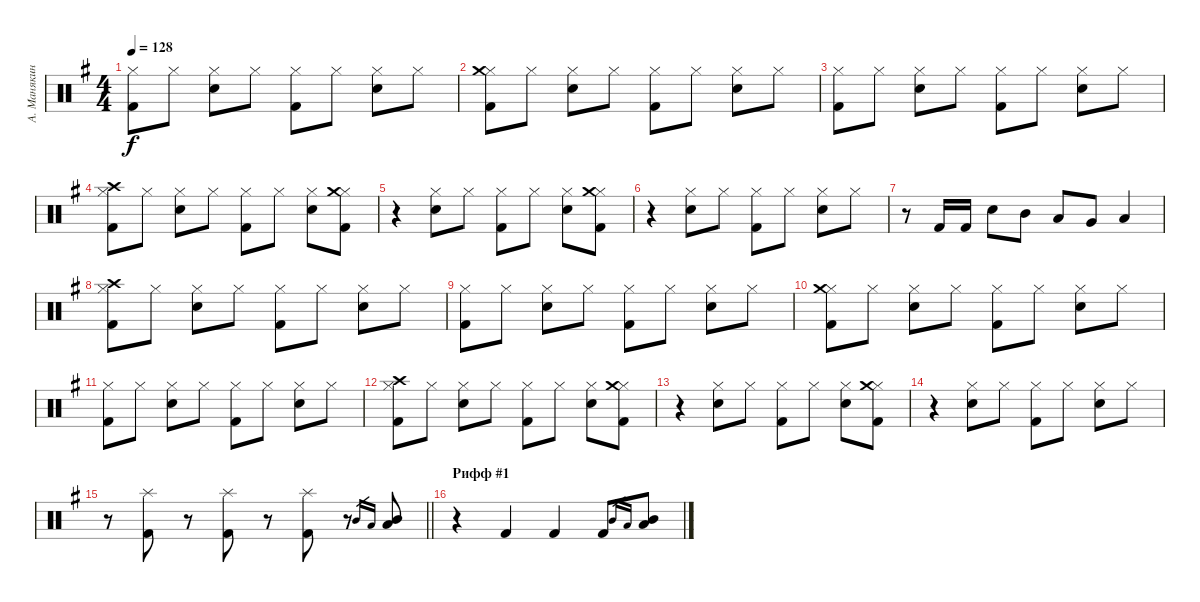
\track ("А. Манякин" "А. Манякин") {instrument percussion}
\staff {score}
\articulation defaults
\ts (4 4)
\tempo 128
\clef neutral
\ks g
("Kick (hit) 2" "Hi-Hat (closed)").8{dy f} "Hi-Hat (closed)".8 ("Electric Snare (hit)" "Hi-Hat (closed)").8 "Hi-Hat (closed)".8 ("Kick (hit) 2" "Hi-Hat (closed)").8 "Hi-Hat (closed)".8 ("Electric Snare (hit)" "Hi-Hat (closed)").8 "Hi-Hat (closed)".8 |
("Kick (hit) 2" "Hi-Hat (closed)" "Crash medium (hit)").8 "Hi-Hat (closed)".8 ("Electric Snare (hit)" "Hi-Hat (closed)").8 "Hi-Hat (closed)".8 ("Kick (hit) 2" "Hi-Hat (closed)").8 "Hi-Hat (closed)".8 ("Electric Snare (hit)" "Hi-Hat (closed)").8 "Hi-Hat (closed)".8 |
("Kick (hit) 2" "Hi-Hat (closed)").8 "Hi-Hat (closed)".8 ("Electric Snare (hit)" "Hi-Hat (closed)").8 "Hi-Hat (closed)".8 ("Kick (hit) 2" "Hi-Hat (closed)").8 "Hi-Hat (closed)".8 ("Electric Snare (hit)" "Hi-Hat (closed)").8 "Hi-Hat (closed)".8 |
("Kick (hit) 2" "Hi-Hat (closed)" "Crash high (hit)").8 "Hi-Hat (closed)".8 ("Electric Snare (hit)" "Hi-Hat (closed)").8 "Hi-Hat (closed)".8 ("Kick (hit) 2" "Hi-Hat (closed)").8 "Hi-Hat (closed)".8 ("Electric Snare (hit)" "Hi-Hat (closed)").8 ("Kick (hit) 2" "Hi-Hat (closed)" "Crash medium (hit)").8 |
r.4 ("Electric Snare (hit)" "Hi-Hat (closed)").8 "Hi-Hat (closed)".8 ("Kick (hit) 2" "Hi-Hat (closed)").8 "Hi-Hat (closed)".8 ("Electric Snare (hit)" "Hi-Hat (closed)").8 ("Kick (hit) 2" "Hi-Hat (closed)" "Crash medium (hit)").8 |
r.4 ("Electric Snare (hit)" "Hi-Hat (closed)").8 "Hi-Hat (closed)".8 ("Kick (hit) 2" "Hi-Hat (closed)").8 "Hi-Hat (closed)".8 ("Electric Snare (hit)" "Hi-Hat (closed)").8 "Hi-Hat (closed)".8 |
r.8 "Kick (hit) 2".16 "Kick (hit) 2".16 "Electric Snare (hit)".8 "Mid Tom (hit)".8 "Low Tom (hit)".8 "Very Low Tom (hit)".8 "Low Floor Tom (hit)".4 |
("Kick (hit) 2" "Hi-Hat (closed)" "Crash high (hit)").8 "Hi-Hat (closed)".8 ("Electric Snare (hit)" "Hi-Hat (closed)").8 "Hi-Hat (closed)".8 ("Kick (hit) 2" "Hi-Hat (closed)").8 "Hi-Hat (closed)".8 ("Electric Snare (hit)" "Hi-Hat (closed)").8 "Hi-Hat (closed)".8 |
("Kick (hit) 2" "Hi-Hat (closed)").8 "Hi-Hat (closed)".8 ("Electric Snare (hit)" "Hi-Hat (closed)").8 "Hi-Hat (closed)".8 ("Kick (hit) 2" "Hi-Hat (closed)").8 "Hi-Hat (closed)".8 ("Electric Snare (hit)" "Hi-Hat (closed)").8 "Hi-Hat (closed)".8 |
("Kick (hit) 2" "Hi-Hat (closed)" "Crash medium (hit)").8 "Hi-Hat (closed)".8 ("Electric Snare (hit)" "Hi-Hat (closed)").8 "Hi-Hat (closed)".8 ("Kick (hit) 2" "Hi-Hat (closed)").8 "Hi-Hat (closed)".8 ("Electric Snare (hit)" "Hi-Hat (closed)").8 "Hi-Hat (closed)".8 |
("Kick (hit) 2" "Hi-Hat (closed)").8 "Hi-Hat (closed)".8 ("Electric Snare (hit)" "Hi-Hat (closed)").8 "Hi-Hat (closed)".8 ("Kick (hit) 2" "Hi-Hat (closed)").8 "Hi-Hat (closed)".8 ("Electric Snare (hit)" "Hi-Hat (closed)").8 "Hi-Hat (closed)".8 |
("Kick (hit) 2" "Hi-Hat (closed)" "Crash high (hit)").8 "Hi-Hat (closed)".8 ("Electric Snare (hit)" "Hi-Hat (closed)").8 "Hi-Hat (closed)".8 ("Kick (hit) 2" "Hi-Hat (closed)").8 "Hi-Hat (closed)".8 ("Electric Snare (hit)" "Hi-Hat (closed)").8 ("Kick (hit) 2" "Hi-Hat (closed)" "Crash medium (hit)").8 |
r.4 ("Electric Snare (hit)" "Hi-Hat (closed)").8 "Hi-Hat (closed)".8 ("Kick (hit) 2" "Hi-Hat (closed)").8 "Hi-Hat (closed)".8 ("Electric Snare (hit)" "Hi-Hat (closed)").8 ("Kick (hit) 2" "Hi-Hat (closed)" "Crash medium (hit)").8 |
r.4 ("Electric Snare (hit)" "Hi-Hat (closed)").8 "Hi-Hat (closed)".8 ("Kick (hit) 2" "Hi-Hat (closed)").8 "Hi-Hat (closed)".8 ("Electric Snare (hit)" "Hi-Hat (closed)").8 "Hi-Hat (closed)".8 |
\barLineRight lightlight
r.8 ("Kick (hit) 2" "Splash (hit)").8 r.8 ("Kick (hit) 2" "Splash (hit)").8 r.8 ("Kick (hit) 2" "Splash (hit)").8 r.8 "Mid Tom (hit)".16{gr} "Low Tom (hit)".16{gr} ("Mid Tom (hit)" "Low Tom (hit)").8 |
\section ("" "Рифф #1")
r.4 "Kick (hit) 2".4 "Kick (hit) 2".4 "Kick (hit) 2".8 "Mid Tom (hit)".16{gr} "Low Tom (hit)".16{gr} ("Mid Tom (hit)" "Low Tom (hit)").8
